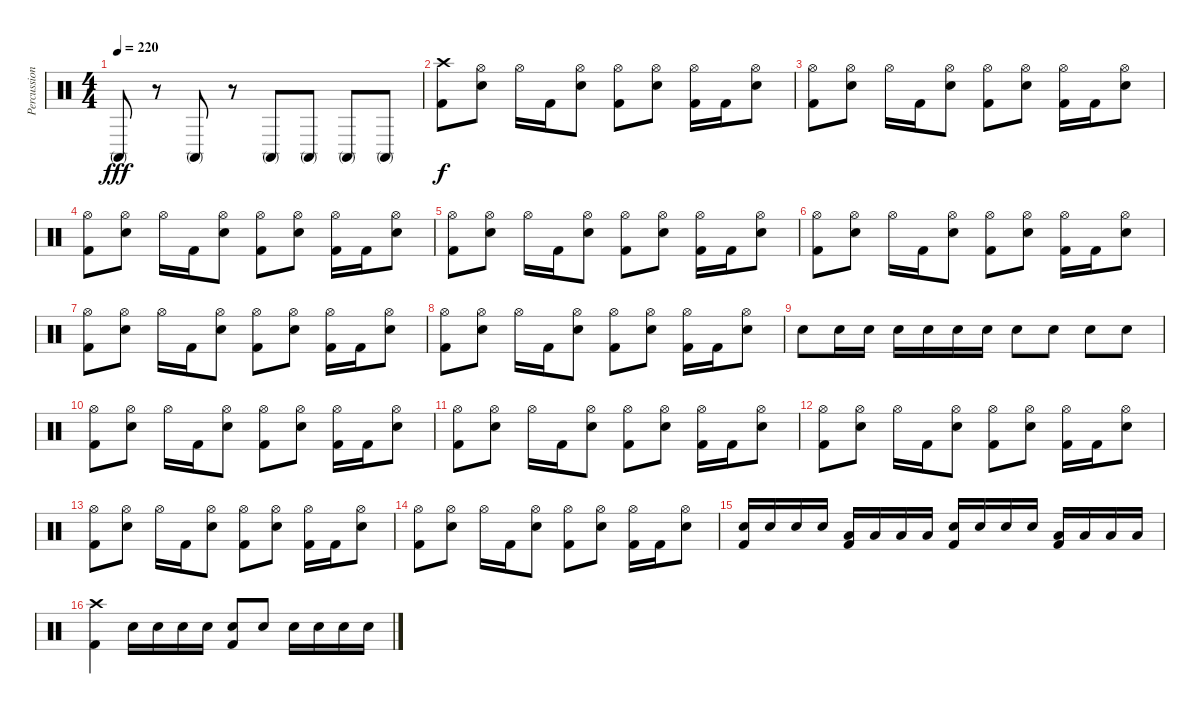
\track ("Percussion" "Percussion") {instrument percussion}
\staff {score}
\articulation defaults
\ts (4 4)
\tempo 220
\clef neutral
\ks c "Conga high (mute)".8{dy fff}
r.8 "Conga high (mute)".8 r.8 "Conga high (mute)".8 "Conga high (mute)".8 "Conga high (mute)".8 "Conga high (mute)".8 |
("Crash high (hit)" "Kick (hit) 2").8{dy f} ("Hi-Hat (open)" "Electric Snare (hit)").8 "Hi-Hat (open)".16 "Kick (hit) 2".16 ("Hi-Hat (open)" "Electric Snare (hit)").8 ("Hi-Hat (open)" "Kick (hit) 2").8 ("Hi-Hat (open)" "Electric Snare (hit)").8 ("Hi-Hat (open)" "Kick (hit) 2").16 "Kick (hit) 2".16 ("Hi-Hat (open)" "Electric Snare (hit)").8 |
("Hi-Hat (open)" "Kick (hit) 2").8 ("Hi-Hat (open)" "Electric Snare (hit)").8 "Hi-Hat (open)".16 "Kick (hit) 2".16 ("Hi-Hat (open)" "Electric Snare (hit)").8 ("Hi-Hat (open)" "Kick (hit) 2").8 ("Hi-Hat (open)" "Electric Snare (hit)").8 ("Hi-Hat (open)" "Kick (hit) 2").16 "Kick (hit) 2".16 ("Hi-Hat (open)" "Electric Snare (hit)").8 |
("Hi-Hat (open)" "Kick (hit) 2").8 ("Hi-Hat (open)" "Electric Snare (hit)").8 "Hi-Hat (open)".16 "Kick (hit) 2".16 ("Hi-Hat (open)" "Electric Snare (hit)").8 ("Hi-Hat (open)" "Kick (hit) 2").8 ("Hi-Hat (open)" "Electric Snare (hit)").8 ("Hi-Hat (open)" "Kick (hit) 2").16 "Kick (hit) 2".16 ("Hi-Hat (open)" "Electric Snare (hit)").8 |
("Hi-Hat (open)" "Kick (hit) 2").8 ("Hi-Hat (open)" "Electric Snare (hit)").8 "Hi-Hat (open)".16 "Kick (hit) 2".16 ("Hi-Hat (open)" "Electric Snare (hit)").8 ("Hi-Hat (open)" "Kick (hit) 2").8 ("Hi-Hat (open)" "Electric Snare (hit)").8 ("Hi-Hat (open)" "Kick (hit) 2").16 "Kick (hit) 2".16 ("Hi-Hat (open)" "Electric Snare (hit)").8 |
("Hi-Hat (open)" "Kick (hit) 2").8 ("Hi-Hat (open)" "Electric Snare (hit)").8 "Hi-Hat (open)".16 "Kick (hit) 2".16 ("Hi-Hat (open)" "Electric Snare (hit)").8 ("Hi-Hat (open)" "Kick (hit) 2").8 ("Hi-Hat (open)" "Electric Snare (hit)").8 ("Hi-Hat (open)" "Kick (hit) 2").16 "Kick (hit) 2".16 ("Hi-Hat (open)" "Electric Snare (hit)").8 |
("Hi-Hat (open)" "Kick (hit) 2").8 ("Hi-Hat (open)" "Electric Snare (hit)").8 "Hi-Hat (open)".16 "Kick (hit) 2".16 ("Hi-Hat (open)" "Electric Snare (hit)").8 ("Hi-Hat (open)" "Kick (hit) 2").8 ("Hi-Hat (open)" "Electric Snare (hit)").8 ("Hi-Hat (open)" "Kick (hit) 2").16 "Kick (hit) 2".16 ("Hi-Hat (open)" "Electric Snare (hit)").8 |
("Hi-Hat (open)" "Kick (hit) 2").8 ("Hi-Hat (open)" "Electric Snare (hit)").8 "Hi-Hat (open)".16 "Kick (hit) 2".16 ("Hi-Hat (open)" "Electric Snare (hit)").8 ("Hi-Hat (open)" "Kick (hit) 2").8 ("Hi-Hat (open)" "Electric Snare (hit)").8 ("Hi-Hat (open)" "Kick (hit) 2").16 "Kick (hit) 2".16 ("Hi-Hat (open)" "Electric Snare (hit)").8 |
"Electric Snare (hit)".8 "Electric Snare (hit)".16 "Electric Snare (hit)".16 "Electric Snare (hit)".16 "Electric Snare (hit)".16 "Electric Snare (hit)".16 "Electric Snare (hit)".16 "Electric Snare (hit)".8 "Electric Snare (hit)".8 "Electric Snare (hit)".8 "Electric Snare (hit)".8 |
("Hi-Hat (open)" "Kick (hit) 2").8 ("Hi-Hat (open)" "Electric Snare (hit)").8 "Hi-Hat (open)".16 "Kick (hit) 2".16 ("Hi-Hat (open)" "Electric Snare (hit)").8 ("Hi-Hat (open)" "Kick (hit) 2").8 ("Hi-Hat (open)" "Electric Snare (hit)").8 ("Hi-Hat (open)" "Kick (hit) 2").16 "Kick (hit) 2".16 ("Hi-Hat (open)" "Electric Snare (hit)").8 |
("Hi-Hat (open)" "Kick (hit) 2").8 ("Hi-Hat (open)" "Electric Snare (hit)").8 "Hi-Hat (open)".16 "Kick (hit) 2".16 ("Hi-Hat (open)" "Electric Snare (hit)").8 ("Hi-Hat (open)" "Kick (hit) 2").8 ("Hi-Hat (open)" "Electric Snare (hit)").8 ("Hi-Hat (open)" "Kick (hit) 2").16 "Kick (hit) 2".16 ("Hi-Hat (open)" "Electric Snare (hit)").8 |
("Hi-Hat (open)" "Kick (hit) 2").8 ("Hi-Hat (open)" "Electric Snare (hit)").8 "Hi-Hat (open)".16 "Kick (hit) 2".16 ("Hi-Hat (open)" "Electric Snare (hit)").8 ("Hi-Hat (open)" "Kick (hit) 2").8 ("Hi-Hat (open)" "Electric Snare (hit)").8 ("Hi-Hat (open)" "Kick (hit) 2").16 "Kick (hit) 2".16 ("Hi-Hat (open)" "Electric Snare (hit)").8 |
("Hi-Hat (open)" "Kick (hit) 2").8 ("Hi-Hat (open)" "Electric Snare (hit)").8 "Hi-Hat (open)".16 "Kick (hit) 2".16 ("Hi-Hat (open)" "Electric Snare (hit)").8 ("Hi-Hat (open)" "Kick (hit) 2").8 ("Hi-Hat (open)" "Electric Snare (hit)").8 ("Hi-Hat (open)" "Kick (hit) 2").16 "Kick (hit) 2".16 ("Hi-Hat (open)" "Electric Snare (hit)").8 |
("Hi-Hat (open)" "Kick (hit) 2").8 ("Hi-Hat (open)" "Electric Snare (hit)").8 "Hi-Hat (open)".16 "Kick (hit) 2".16 ("Hi-Hat (open)" "Electric Snare (hit)").8 ("Hi-Hat (open)" "Kick (hit) 2").8 ("Hi-Hat (open)" "Electric Snare (hit)").8 ("Hi-Hat (open)" "Kick (hit) 2").16 "Kick (hit) 2".16 ("Hi-Hat (open)" "Electric Snare (hit)").8 |
("Electric Snare (hit)" "Kick (hit) 2").16 "Electric Snare (hit)".16 "Electric Snare (hit)".16 "Electric Snare (hit)".16 ("Low Tom (hit)" "Kick (hit) 2").16 "Low Tom (hit)".16 "Low Tom (hit)".16 "Low Tom (hit)".16 ("Electric Snare (hit)" "Kick (hit) 2").16 "Electric Snare (hit)".16 "Electric Snare (hit)".16 "Electric Snare (hit)".16 ("Low Tom (hit)" "Kick (hit) 2").16 "Low Tom (hit)".16 "Low Tom (hit)".16 "Low Tom (hit)".16 |
("Crash high (hit)" "Kick (hit) 2").4 "Electric Snare (hit)".16 "Electric Snare (hit)".16 "Electric Snare (hit)".16 "Electric Snare (hit)".16 ("Electric Snare (hit)" "Kick (hit) 2").8 "Electric Snare (hit)".8 "Electric Snare (hit)".16 "Electric Snare (hit)".16 "Electric Snare (hit)".16 "Electric Snare (hit)".16
